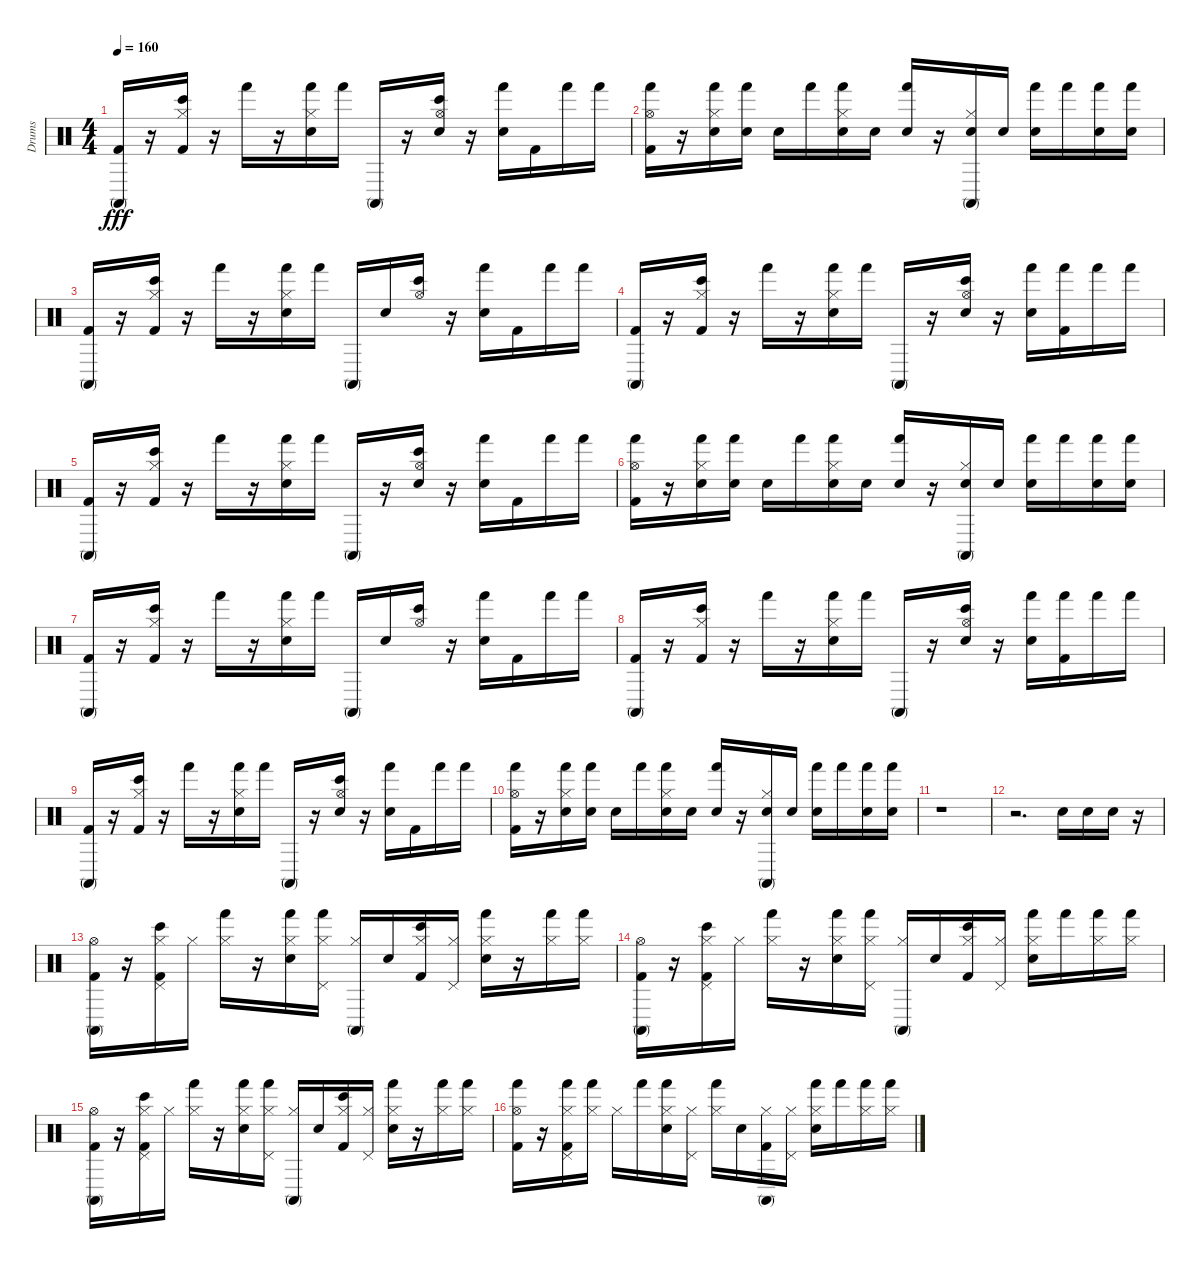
\track ("Drums" "Drums") {instrument percussion}
\staff {score}
\articulation defaults
\ts (4 4)
\tempo 160
\clef neutral
\ks c
("Kick (hit) 2" "Conga high (mute)").16{dy fff} r.16 ("Bongo High (hit)" "Hi-Hat (closed)" "Kick (hit) 2").16 r.16 "Hand (hit)".16 r.16 ("Hi-Hat (closed)" "Electric Snare (hit)" "Hand (hit)").16 "Hand (hit)".16 "Conga high (mute)".16 r.16 ("Hi-Hat (open)" "Bongo High (hit)" "Electric Snare (hit)").16 r.16 ("Electric Snare (hit)" "Hand (hit)").16 "Kick (hit) 2".16 "Hand (hit)".16 "Hand (hit)".16 |
("Hand (hit)" "Kick (hit) 2" "Hi-Hat (open)").16 r.16 ("Hand (hit)" "Hi-Hat (closed)" "Electric Snare (hit)").16 ("Hand (hit)" "Electric Snare (hit)").16 "Electric Snare (hit)".16 "Hand (hit)".16 ("Electric Snare (hit)" "Hand (hit)" "Hi-Hat (closed)").16 "Electric Snare (hit)".16 ("Electric Snare (hit)" "Hand (hit)").16 r.16 ("Conga high (mute)" "Electric Snare (hit)" "Hi-Hat (closed)").16 "Electric Snare (hit)".16 ("Electric Snare (hit)" "Hand (hit)").16 "Hand (hit)".16 ("Hand (hit)" "Electric Snare (hit)").16 ("Hand (hit)" "Electric Snare (hit)").16 |
("Kick (hit) 2" "Conga high (mute)").16 r.16 ("Bongo High (hit)" "Hi-Hat (closed)" "Kick (hit) 2").16 r.16 "Hand (hit)".16 r.16 ("Hi-Hat (closed)" "Electric Snare (hit)" "Hand (hit)").16 "Hand (hit)".16 "Conga high (mute)".16 "Electric Snare (hit)".16 ("Hi-Hat (open)" "Bongo High (hit)").16 r.16 ("Electric Snare (hit)" "Hand (hit)").16 "Kick (hit) 2".16 "Hand (hit)".16 "Hand (hit)".16 |
("Kick (hit) 2" "Conga high (mute)").16 r.16 ("Hi-Hat (closed)" "Bongo High (hit)" "Kick (hit) 2").16 r.16 "Hand (hit)".16 r.16 ("Hi-Hat (closed)" "Hand (hit)" "Electric Snare (hit)").16 "Hand (hit)".16 "Conga high (mute)".16 r.16 ("Hi-Hat (open)" "Electric Snare (hit)" "Bongo High (hit)").16 r.16 ("Electric Snare (hit)" "Hand (hit)").16 ("Kick (hit) 2" "Hand (hit)").16 "Hand (hit)".16 "Hand (hit)".16 |
("Kick (hit) 2" "Conga high (mute)").16 r.16 ("Hi-Hat (closed)" "Bongo High (hit)" "Kick (hit) 2").16 r.16 "Hand (hit)".16 r.16 ("Hi-Hat (closed)" "Hand (hit)" "Electric Snare (hit)").16 "Hand (hit)".16 "Conga high (mute)".16 r.16 ("Hi-Hat (open)" "Electric Snare (hit)" "Bongo High (hit)").16 r.16 ("Hand (hit)" "Electric Snare (hit)").16 "Kick (hit) 2".16 "Hand (hit)".16 "Hand (hit)".16 |
("Hi-Hat (open)" "Hand (hit)" "Kick (hit) 2").16 r.16 ("Hand (hit)" "Electric Snare (hit)" "Hi-Hat (closed)").16 ("Electric Snare (hit)" "Hand (hit)").16 "Electric Snare (hit)".16 "Hand (hit)".16 ("Hi-Hat (closed)" "Hand (hit)" "Electric Snare (hit)").16 "Electric Snare (hit)".16 ("Electric Snare (hit)" "Hand (hit)").16 r.16 ("Conga high (mute)" "Electric Snare (hit)" "Hi-Hat (closed)").16 "Electric Snare (hit)".16 ("Hand (hit)" "Electric Snare (hit)").16 "Hand (hit)".16 ("Electric Snare (hit)" "Hand (hit)").16 ("Electric Snare (hit)" "Hand (hit)").16 |
("Kick (hit) 2" "Conga high (mute)").16 r.16 ("Bongo High (hit)" "Kick (hit) 2" "Hi-Hat (closed)").16 r.16 "Hand (hit)".16 r.16 ("Hi-Hat (closed)" "Hand (hit)" "Electric Snare (hit)").16 "Hand (hit)".16 "Conga high (mute)".16 "Electric Snare (hit)".16 ("Hi-Hat (open)" "Bongo High (hit)").16 r.16 ("Hand (hit)" "Electric Snare (hit)").16 "Kick (hit) 2".16 "Hand (hit)".16 "Hand (hit)".16 |
("Conga high (mute)" "Kick (hit) 2").16 r.16 ("Bongo High (hit)" "Kick (hit) 2" "Hi-Hat (closed)").16 r.16 "Hand (hit)".16 r.16 ("Electric Snare (hit)" "Hi-Hat (closed)" "Hand (hit)").16 "Hand (hit)".16 "Conga high (mute)".16 r.16 ("Bongo High (hit)" "Hi-Hat (open)" "Electric Snare (hit)").16 r.16 ("Electric Snare (hit)" "Hand (hit)").16 ("Kick (hit) 2" "Hand (hit)").16 "Hand (hit)".16 "Hand (hit)".16 |
("Kick (hit) 2" "Conga high (mute)").16 r.16 ("Bongo High (hit)" "Hi-Hat (closed)" "Kick (hit) 2").16 r.16 "Hand (hit)".16 r.16 ("Electric Snare (hit)" "Hi-Hat (closed)" "Hand (hit)").16 "Hand (hit)".16 "Conga high (mute)".16 r.16 ("Hi-Hat (open)" "Bongo High (hit)" "Electric Snare (hit)").16 r.16 ("Hand (hit)" "Electric Snare (hit)").16 "Kick (hit) 2".16 "Hand (hit)".16 "Hand (hit)".16 |
("Hi-Hat (open)" "Hand (hit)" "Kick (hit) 2").16 r.16 ("Hand (hit)" "Hi-Hat (closed)" "Electric Snare (hit)").16 ("Electric Snare (hit)" "Hand (hit)").16 "Electric Snare (hit)".16 "Hand (hit)".16 ("Hi-Hat (closed)" "Electric Snare (hit)" "Hand (hit)").16 "Electric Snare (hit)".16 ("Electric Snare (hit)" "Hand (hit)").16 r.16 ("Conga high (mute)" "Hi-Hat (closed)" "Electric Snare (hit)").16 "Electric Snare (hit)".16 ("Electric Snare (hit)" "Hand (hit)").16 "Hand (hit)".16 ("Electric Snare (hit)" "Hand (hit)").16 ("Electric Snare (hit)" "Hand (hit)").16 |
r.1 |
r.2{d} "Snare (hit) 2".16 "Snare (hit) 2".16 "Snare (hit) 2".16 r.16 |
("Conga high (mute)" "Kick (hit) 2" "Hi-Hat (open)").16 r.16 ("Pedal Hi-Hat (hit)" "Kick (hit) 2" "Bongo High (hit)" "Hi-Hat (closed)").16 "Hi-Hat (closed)".16 ("Hand (hit)" "Hi-Hat (closed)").16 r.16 ("Electric Snare (hit)" "Hand (hit)" "Hi-Hat (closed)").16 ("Hand (hit)" "Hi-Hat (closed)" "Pedal Hi-Hat (hit)").16 ("Conga high (mute)" "Hi-Hat (closed)").16 "Electric Snare (hit)".16 ("Hi-Hat (closed)" "Kick (hit) 2" "Bongo High (hit)").16 ("Hi-Hat (closed)" "Pedal Hi-Hat (hit)").16 ("Hand (hit)" "Hi-Hat (closed)" "Electric Snare (hit)").16 r.16 ("Hi-Hat (closed)" "Hand (hit)").16 ("Hand (hit)" "Hi-Hat (closed)").16 |
("Kick (hit) 2" "Hi-Hat (open)" "Conga high (mute)").16 r.16 ("Hi-Hat (closed)" "Kick (hit) 2" "Pedal Hi-Hat (hit)" "Bongo High (hit)").16 "Hi-Hat (closed)".16 ("Hand (hit)" "Hi-Hat (closed)").16 r.16 ("Hand (hit)" "Electric Snare (hit)" "Hi-Hat (closed)").16 ("Pedal Hi-Hat (hit)" "Hand (hit)" "Hi-Hat (closed)").16 ("Hi-Hat (closed)" "Conga high (mute)").16 "Electric Snare (hit)".16 ("Bongo High (hit)" "Kick (hit) 2" "Hi-Hat (closed)").16 ("Hi-Hat (closed)" "Pedal Hi-Hat (hit)").16 ("Electric Snare (hit)" "Hi-Hat (closed)" "Hand (hit)").16 "Hand (hit)".16 ("Hand (hit)" "Hi-Hat (closed)").16 ("Hi-Hat (closed)" "Hand (hit)").16 |
("Kick (hit) 2" "Conga high (mute)" "Hi-Hat (open)").16 r.16 ("Hi-Hat (closed)" "Pedal Hi-Hat (hit)" "Kick (hit) 2" "Bongo High (hit)").16 "Hi-Hat (closed)".16 ("Hi-Hat (closed)" "Hand (hit)").16 r.16 ("Electric Snare (hit)" "Hi-Hat (closed)" "Hand (hit)").16 ("Hand (hit)" "Hi-Hat (closed)" "Pedal Hi-Hat (hit)").16 ("Conga high (mute)" "Hi-Hat (closed)").16 "Electric Snare (hit)".16 ("Kick (hit) 2" "Bongo High (hit)" "Hi-Hat (closed)").16 ("Hi-Hat (closed)" "Pedal Hi-Hat (hit)").16 ("Electric Snare (hit)" "Hand (hit)" "Hi-Hat (closed)").16 r.16 ("Hand (hit)" "Hi-Hat (closed)").16 ("Hand (hit)" "Hi-Hat (closed)").16 |
("Kick (hit) 2" "Hand (hit)" "Hi-Hat (open)").16 r.16 ("Hi-Hat (closed)" "Pedal Hi-Hat (hit)" "Kick (hit) 2" "Hand (hit)").16 ("Hand (hit)" "Hi-Hat (closed)").16 "Hi-Hat (closed)".16 "Hand (hit)".16 ("Electric Snare (hit)" "Hi-Hat (closed)" "Hand (hit)").16 ("Pedal Hi-Hat (hit)" "Hi-Hat (closed)").16 ("Hand (hit)" "Hi-Hat (closed)").16 "Electric Snare (hit)".16 ("Kick (hit) 2" "Conga high (mute)" "Hi-Hat (closed)").16 ("Pedal Hi-Hat (hit)" "Hi-Hat (closed)").16 ("Hi-Hat (closed)" "Electric Snare (hit)" "Hand (hit)").16 "Hand (hit)".16 ("Hand (hit)" "Hi-Hat (closed)").16 ("Hand (hit)" "Hi-Hat (closed)").16
